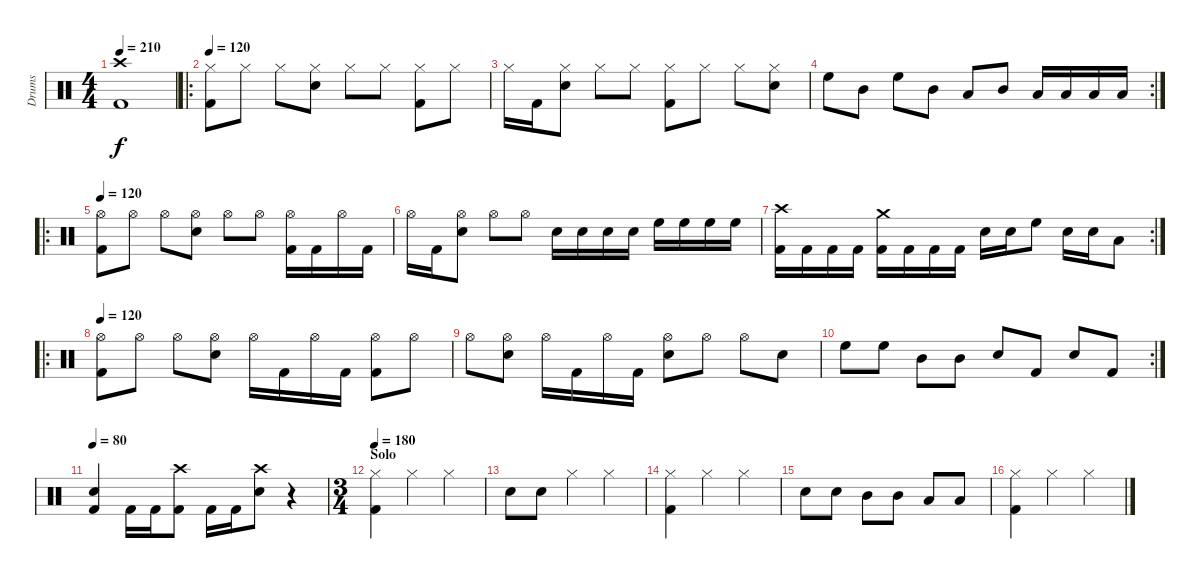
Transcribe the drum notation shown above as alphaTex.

\track ("Drums" "Drums") {instrument percussion}
\staff {score}
\articulation defaults
\ts (4 4)
\tempo 210
\clef neutral
\ks c
("Crash high (hit)" "Kick (hit) 2").1{dy f} |
\ro
\tempo 120
("Kick (hit) 2" "Hi-Hat (closed)").8 "Hi-Hat (closed)".8 "Hi-Hat (closed)".8 ("Hi-Hat (closed)" "Snare (hit) 2").8 "Hi-Hat (closed)".8 "Hi-Hat (closed)".8 ("Kick (hit) 2" "Hi-Hat (closed)").8 "Hi-Hat (closed)".8 |
"Hi-Hat (closed)".16 "Kick (hit) 2".16 ("Hi-Hat (closed)" "Snare (hit) 2").8 "Hi-Hat (closed)".8 "Hi-Hat (closed)".8 ("Kick (hit) 2" "Hi-Hat (closed)").8 "Hi-Hat (closed)".8 "Hi-Hat (closed)".8 ("Hi-Hat (closed)" "Snare (hit) 2").8 |
\rc 2 "High Floor Tom (hit)".8 "Mid Tom (hit)".8 "High Floor Tom (hit)".8 "Mid Tom (hit)".8 "Low Tom (hit)".8 "Mid Tom (hit)".8 "Low Tom (hit)".16 "Low Tom (hit)".16 "Low Tom (hit)".16 "Low Tom (hit)".16
|
\ro
\tempo 120
("Kick (hit) 2" "Hi-Hat (open)").8 "Hi-Hat (open)".8 "Hi-Hat (open)".8 ("Hi-Hat (open)" "Snare (hit) 2").8 "Hi-Hat (open)".8 "Hi-Hat (open)".8 ("Hi-Hat (open)" "Kick (hit) 2").16 "Kick (hit) 2".16 "Hi-Hat (open)".16 "Kick (hit) 2".16 |
"Hi-Hat (open)".16 "Kick (hit) 2".16 ("Hi-Hat (open)" "Snare (hit) 2").8 "Hi-Hat (open)".8 "Hi-Hat (open)".8 "Snare (hit) 2".16 "Snare (hit) 2".16 "Snare (hit) 2".16 "Snare (hit) 2".16 "High Floor Tom (hit)".16 "High Floor Tom (hit)".16 "High Floor Tom (hit)".16 "High Floor Tom (hit)".16 |
\rc 2
("Crash high (hit)" "Kick (hit) 2").16 "Kick (hit) 2".16 "Kick (hit) 2".16 "Kick (hit) 2".16 ("Crash medium (hit)" "Kick (hit) 2").16 "Kick (hit) 2".16 "Kick (hit) 2".16 "Kick (hit) 2".16 "Snare (hit) 2".16 "Snare (hit) 2".16 "High Floor Tom (hit)".8 "Snare (hit) 2".16 "Snare (hit) 2".16 "Low Tom (hit)".8 |
\ro
\tempo 120
("Hi-Hat (open)" "Kick (hit) 2").8 "Hi-Hat (open)".8 "Hi-Hat (open)".8 ("Hi-Hat (open)" "Snare (hit) 2").8 "Hi-Hat (open)".16 "Kick (hit) 2".16 "Hi-Hat (open)".16 "Kick (hit) 2".16 ("Hi-Hat (open)" "Kick (hit) 2").8 "Hi-Hat (open)".8 |
"Hi-Hat (open)".8 ("Hi-Hat (open)" "Snare (hit) 2").8 "Hi-Hat (open)".16 "Kick (hit) 2".16 "Hi-Hat (open)".16 "Kick (hit) 2".16 ("Hi-Hat (open)" "Snare (hit) 2").8 "Hi-Hat (open)".8 "Hi-Hat (open)".8 "Snare (hit) 2".8 |
\rc 2 "High Floor Tom (hit)".8 "High Floor Tom (hit)".8 "Mid Tom (hit)".8 "Mid Tom (hit)".8 "Snare (hit) 2".8 "Kick (hit) 2".8 "Snare (hit) 2".8 "Kick (hit) 2".8
|
\tempo 80
("Snare (hit) 2" "Kick (hit) 2").4 "Kick (hit) 2".16 "Kick (hit) 2".16 ("Crash high (hit)" "Kick (hit) 2").8 "Kick (hit) 2".16 "Kick (hit) 2".16 ("Crash high (hit)" "Snare (hit) 2").8 r.4 |
\ts (3 4)
\section ("" "Solo")
\tempo 180
("Hi-Hat (closed)" "Kick (hit) 2").4 "Hi-Hat (closed)".4 "Hi-Hat (closed)".4 |
"Snare (hit) 2".8 "Snare (hit) 2".8 "Hi-Hat (closed)".4 "Hi-Hat (closed)".4 |
("Hi-Hat (closed)" "Kick (hit) 2").4 "Hi-Hat (closed)".4 "Hi-Hat (closed)".4 |
"Snare (hit) 2".8 "Snare (hit) 2".8 "Mid Tom (hit)".8 "Mid Tom (hit)".8 "Low Tom (hit)".8 "Low Tom (hit)".8 |
("Hi-Hat (closed)" "Kick (hit) 2").4 "Hi-Hat (closed)".4 "Hi-Hat (closed)".4
